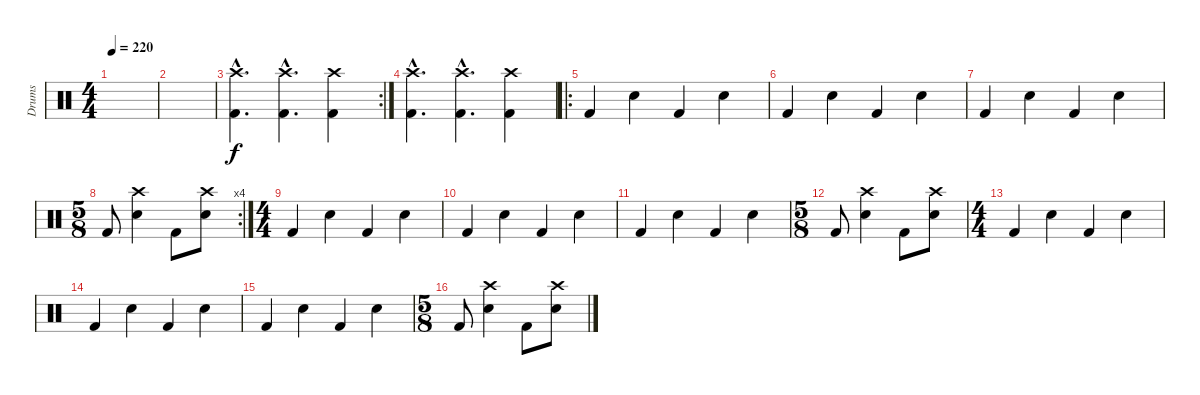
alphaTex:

\track ("Drums" "Drums") {instrument percussion}
\staff {score}
\articulation defaults
\ts (4 4)
\tempo 220
\clef neutral
\ks c
|
|
\rc 2
("Crash high (hit)"{hac} "Kick (hit) 2"{hac}).4{d} ("Kick (hit) 2"{hac} "Crash high (hit)"{hac}).4{d} ("Crash high (hit)" "Kick (hit) 2").4 |
("Crash high (hit)"{hac} "Kick (hit) 2"{hac}).4{d} ("Kick (hit) 2"{hac} "Crash high (hit)"{hac}).4{d} ("Crash high (hit)" "Kick (hit) 2").4 |
\ro "Kick (hit) 2".4 "Electric Snare (hit)".4 "Kick (hit) 2".4 "Electric Snare (hit)".4
|
"Kick (hit) 2".4 "Electric Snare (hit)".4 "Kick (hit) 2".4 "Electric Snare (hit)".4 |
"Kick (hit) 2".4 "Electric Snare (hit)".4 "Kick (hit) 2".4 "Electric Snare (hit)".4 |
\rc 4
\ts (5 8)
"Kick (hit) 2".8 ("Electric Snare (hit)" "Crash high (hit)").4 "Kick (hit) 2".8 ("Crash high (hit)" "Electric Snare (hit)").8 |
\ts (4 4)
"Kick (hit) 2".4 "Electric Snare (hit)".4 "Kick (hit) 2".4 "Electric Snare (hit)".4 |
"Kick (hit) 2".4 "Electric Snare (hit)".4 "Kick (hit) 2".4 "Electric Snare (hit)".4 |
"Kick (hit) 2".4 "Electric Snare (hit)".4 "Kick (hit) 2".4 "Electric Snare (hit)".4 |
\ts (5 8)
"Kick (hit) 2".8 ("Electric Snare (hit)" "Crash high (hit)").4 "Kick (hit) 2".8 ("Crash high (hit)" "Electric Snare (hit)").8 |
\ts (4 4)
"Kick (hit) 2".4 "Electric Snare (hit)".4 "Kick (hit) 2".4 "Electric Snare (hit)".4 |
"Kick (hit) 2".4 "Electric Snare (hit)".4 "Kick (hit) 2".4 "Electric Snare (hit)".4 |
"Kick (hit) 2".4 "Electric Snare (hit)".4 "Kick (hit) 2".4 "Electric Snare (hit)".4 |
\ts (5 8)
"Kick (hit) 2".8 ("Electric Snare (hit)" "Crash high (hit)").4 "Kick (hit) 2".8 ("Crash high (hit)" "Electric Snare (hit)").8
